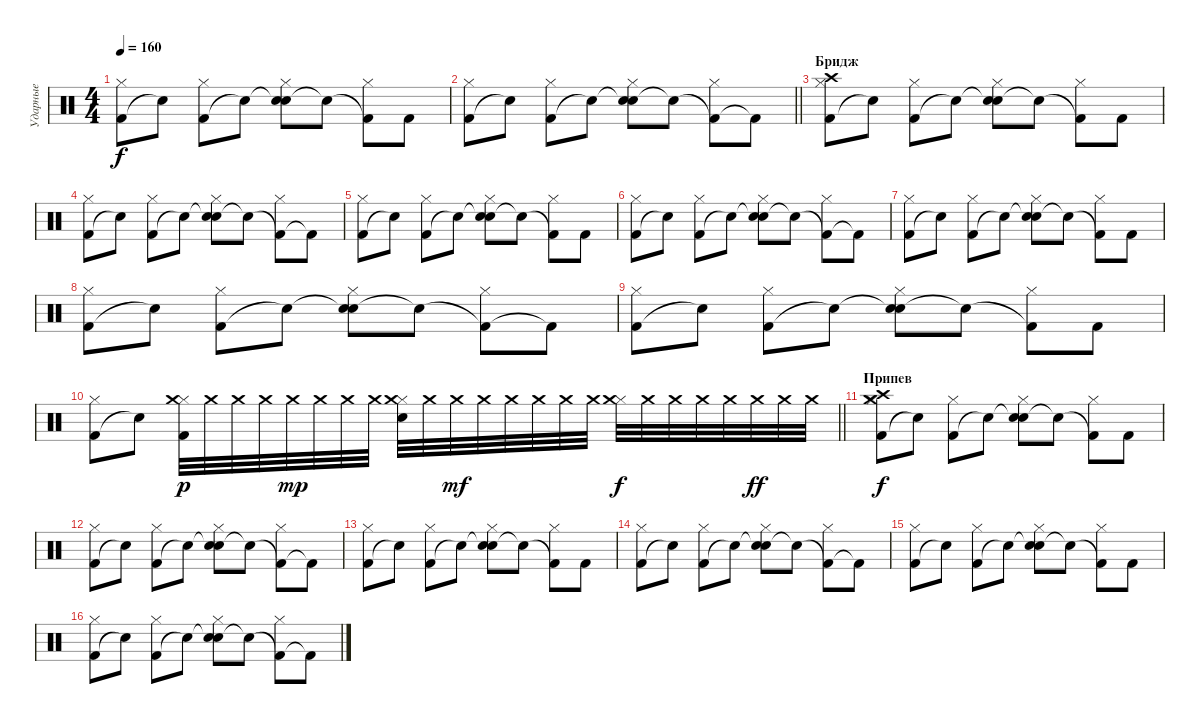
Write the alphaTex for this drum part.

\track ("Ударные" "Ударные") {instrument percussion}
\staff {score}
\articulation defaults
\ts (4 4)
\tempo 160
\clef neutral
\ks c
("Kick (hit) 2" "Hi-Hat (closed)").8{dy f} "Snare (hit)"{t}.8 ("Kick (hit) 2" "Hi-Hat (closed)").8 "Snare (hit)"{t}.8 ("Snare (hit)"{t} "Hi-Hat (closed)" "Snare (hit) 2").8 "Snare (hit)"{t}.8 ("Kick (hit) 2"{t} "Hi-Hat (closed)").8 "Kick (hit) 2".8 |
\barLineRight lightlight
("Kick (hit) 2" "Hi-Hat (closed)").8 "Snare (hit)"{t}.8 ("Kick (hit) 2" "Hi-Hat (closed)").8 "Snare (hit)"{t}.8 ("Snare (hit)"{t} "Hi-Hat (closed)" "Snare (hit) 2").8 "Snare (hit)"{t}.8 ("Kick (hit) 2"{t} "Hi-Hat (closed)").8 "Kick (hit) 2"{t}.8 |
\section ("" "Бридж")
("Kick (hit) 2" "Hi-Hat (closed)" "Crash high (hit)").8 "Snare (hit)"{t}.8 ("Kick (hit) 2" "Hi-Hat (closed)").8 "Snare (hit)"{t}.8 ("Snare (hit)"{t} "Hi-Hat (closed)" "Snare (hit) 2").8 "Snare (hit)"{t}.8 ("Kick (hit) 2"{t} "Hi-Hat (closed)").8 "Kick (hit) 2".8 |
("Kick (hit) 2" "Hi-Hat (closed)").8 "Snare (hit)"{t}.8 ("Kick (hit) 2" "Hi-Hat (closed)").8 "Snare (hit)"{t}.8 ("Snare (hit)"{t} "Hi-Hat (closed)" "Snare (hit) 2").8 "Snare (hit)"{t}.8 ("Kick (hit) 2"{t} "Hi-Hat (closed)").8 "Kick (hit) 2"{t}.8 |
("Kick (hit) 2" "Hi-Hat (closed)").8 "Snare (hit)"{t}.8 ("Kick (hit) 2" "Hi-Hat (closed)").8 "Snare (hit)"{t}.8 ("Snare (hit)"{t} "Hi-Hat (closed)" "Snare (hit) 2").8 "Snare (hit)"{t}.8 ("Kick (hit) 2"{t} "Hi-Hat (closed)").8 "Kick (hit) 2".8 |
("Kick (hit) 2" "Hi-Hat (closed)").8 "Snare (hit)"{t}.8 ("Kick (hit) 2" "Hi-Hat (closed)").8 "Snare (hit)"{t}.8 ("Snare (hit)"{t} "Hi-Hat (closed)" "Snare (hit) 2").8 "Snare (hit)"{t}.8 ("Kick (hit) 2"{t} "Hi-Hat (closed)").8 "Kick (hit) 2"{t}.8 |
("Kick (hit) 2" "Hi-Hat (closed)").8 "Snare (hit)"{t}.8 ("Kick (hit) 2" "Hi-Hat (closed)").8 "Snare (hit)"{t}.8 ("Snare (hit)"{t} "Hi-Hat (closed)" "Snare (hit) 2").8 "Snare (hit)"{t}.8 ("Kick (hit) 2"{t} "Hi-Hat (closed)").8 "Kick (hit) 2".8 |
("Kick (hit) 2" "Hi-Hat (closed)").8 "Snare (hit)"{t}.8 ("Kick (hit) 2" "Hi-Hat (closed)").8 "Snare (hit)"{t}.8 ("Snare (hit)"{t} "Hi-Hat (closed)" "Snare (hit) 2").8 "Snare (hit)"{t}.8 ("Kick (hit) 2"{t} "Hi-Hat (closed)").8 "Kick (hit) 2"{t}.8 |
("Kick (hit) 2" "Hi-Hat (closed)").8 "Snare (hit)"{t}.8 ("Kick (hit) 2" "Hi-Hat (closed)").8 "Snare (hit)"{t}.8 ("Snare (hit)"{t} "Hi-Hat (closed)" "Snare (hit) 2").8 "Snare (hit)"{t}.8 ("Kick (hit) 2"{t} "Hi-Hat (closed)").8 "Kick (hit) 2".8 |
\barLineRight lightlight
("Kick (hit) 2" "Hi-Hat (closed)").8 "Snare (hit)"{t}.8 ("Kick (hit) 2" "Hi-Hat (closed)" "Crash medium (hit)").32{dy p} "Crash medium (hit)".32 "Crash medium (hit)".32 "Crash medium (hit)".32 "Crash medium (hit)".32{dy mp} "Crash medium (hit)".32 "Crash medium (hit)".32 "Crash medium (hit)".32 ("Hi-Hat (closed)" "Crash medium (hit)" "Snare (hit) 2").32 "Crash medium (hit)".32 "Crash medium (hit)".32{dy mf} "Crash medium (hit)".32 "Crash medium (hit)".32 "Crash medium (hit)".32 "Crash medium (hit)".32 "Crash medium (hit)".32 ("Hi-Hat (closed)" "Crash medium (hit)").32{dy f} "Crash medium (hit)".32 "Crash medium (hit)".32 "Crash medium (hit)".32 "Crash medium (hit)".32 "Crash medium (hit)".32{dy ff} "Crash medium (hit)".32 "Crash medium (hit)".32 |
\section ("" "Припев")
("Kick (hit) 2" "Hi-Hat (closed)" "Crash medium (hit)" "Crash high (hit)").8{dy f} "Snare (hit)"{t}.8 ("Kick (hit) 2" "Hi-Hat (closed)").8 "Snare (hit)"{t}.8 ("Snare (hit)"{t} "Hi-Hat (closed)" "Snare (hit) 2").8 "Snare (hit)"{t}.8 ("Kick (hit) 2"{t} "Hi-Hat (closed)").8 "Kick (hit) 2".8 |
("Kick (hit) 2" "Hi-Hat (closed)").8 "Snare (hit)"{t}.8 ("Kick (hit) 2" "Hi-Hat (closed)").8 "Snare (hit)"{t}.8 ("Snare (hit)"{t} "Hi-Hat (closed)" "Snare (hit) 2").8 "Snare (hit)"{t}.8 ("Kick (hit) 2"{t} "Hi-Hat (closed)").8 "Kick (hit) 2"{t}.8 |
("Kick (hit) 2" "Hi-Hat (closed)").8 "Snare (hit)"{t}.8 ("Kick (hit) 2" "Hi-Hat (closed)").8 "Snare (hit)"{t}.8 ("Snare (hit)"{t} "Hi-Hat (closed)" "Snare (hit) 2").8 "Snare (hit)"{t}.8 ("Kick (hit) 2"{t} "Hi-Hat (closed)").8 "Kick (hit) 2".8 |
("Kick (hit) 2" "Hi-Hat (closed)").8 "Snare (hit)"{t}.8 ("Kick (hit) 2" "Hi-Hat (closed)").8 "Snare (hit)"{t}.8 ("Snare (hit)"{t} "Hi-Hat (closed)" "Snare (hit) 2").8 "Snare (hit)"{t}.8 ("Kick (hit) 2"{t} "Hi-Hat (closed)").8 "Kick (hit) 2"{t}.8 |
("Kick (hit) 2" "Hi-Hat (closed)").8 "Snare (hit)"{t}.8 ("Kick (hit) 2" "Hi-Hat (closed)").8 "Snare (hit)"{t}.8 ("Snare (hit)"{t} "Hi-Hat (closed)" "Snare (hit) 2").8 "Snare (hit)"{t}.8 ("Kick (hit) 2"{t} "Hi-Hat (closed)").8 "Kick (hit) 2".8 |
("Kick (hit) 2" "Hi-Hat (closed)").8 "Snare (hit)"{t}.8 ("Kick (hit) 2" "Hi-Hat (closed)").8 "Snare (hit)"{t}.8 ("Snare (hit)"{t} "Hi-Hat (closed)" "Snare (hit) 2").8 "Snare (hit)"{t}.8 ("Kick (hit) 2"{t} "Hi-Hat (closed)").8 "Kick (hit) 2"{t}.8
